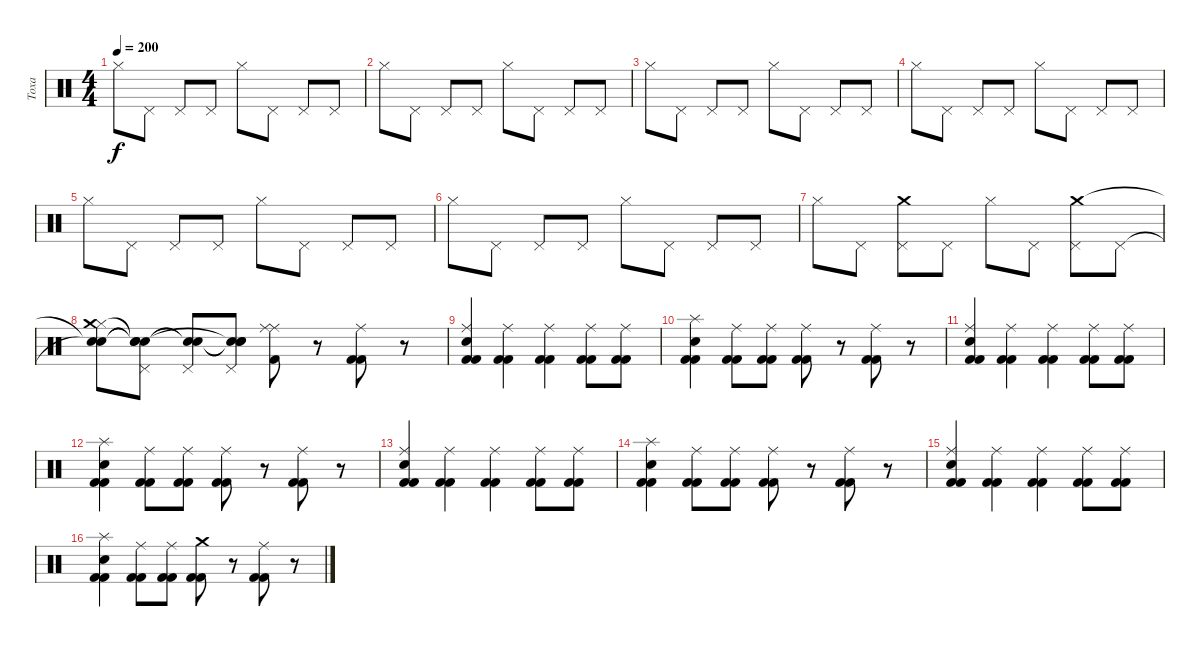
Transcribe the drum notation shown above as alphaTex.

\track ("Toxa" "Toxa") {instrument percussion}
\staff {score}
\articulation defaults
\ts (4 4)
\tempo 200
\clef neutral
\ks c "Hi-Hat (closed)".8{dy f} "Pedal Hi-Hat (hit)".8 "Pedal Hi-Hat (hit)".8 "Pedal Hi-Hat (hit)".8 "Hi-Hat (closed)".8 "Pedal Hi-Hat (hit)".8 "Pedal Hi-Hat (hit)".8 "Pedal Hi-Hat (hit)".8
|
"Hi-Hat (closed)".8 "Pedal Hi-Hat (hit)".8 "Pedal Hi-Hat (hit)".8 "Pedal Hi-Hat (hit)".8 "Hi-Hat (closed)".8 "Pedal Hi-Hat (hit)".8 "Pedal Hi-Hat (hit)".8 "Pedal Hi-Hat (hit)".8 |
"Hi-Hat (closed)".8 "Pedal Hi-Hat (hit)".8 "Pedal Hi-Hat (hit)".8 "Pedal Hi-Hat (hit)".8 "Hi-Hat (closed)".8 "Pedal Hi-Hat (hit)".8 "Pedal Hi-Hat (hit)".8 "Pedal Hi-Hat (hit)".8 |
"Hi-Hat (closed)".8 "Pedal Hi-Hat (hit)".8 "Pedal Hi-Hat (hit)".8 "Pedal Hi-Hat (hit)".8 "Hi-Hat (closed)".8 "Pedal Hi-Hat (hit)".8 "Pedal Hi-Hat (hit)".8 "Pedal Hi-Hat (hit)".8 |
"Hi-Hat (closed)".8 "Pedal Hi-Hat (hit)".8 "Pedal Hi-Hat (hit)".8 "Pedal Hi-Hat (hit)".8 "Hi-Hat (closed)".8 "Pedal Hi-Hat (hit)".8 "Pedal Hi-Hat (hit)".8 "Pedal Hi-Hat (hit)".8 |
"Hi-Hat (closed)".8 "Pedal Hi-Hat (hit)".8 "Pedal Hi-Hat (hit)".8 "Pedal Hi-Hat (hit)".8 "Hi-Hat (closed)".8 "Pedal Hi-Hat (hit)".8 "Pedal Hi-Hat (hit)".8 "Pedal Hi-Hat (hit)".8 |
"Hi-Hat (closed)".8 "Pedal Hi-Hat (hit)".8 ("Pedal Hi-Hat (hit)" "Crash medium (hit)").8 "Pedal Hi-Hat (hit)".8 "Hi-Hat (closed)".8 "Pedal Hi-Hat (hit)".8 ("Pedal Hi-Hat (hit)" "Crash medium (hit)").8 "Pedal Hi-Hat (hit)".8 |
("Snare (hit)"{t} "Snare (hit)"{t} "Hi-Hat (closed)" "Crash medium (hit)").8 ("Snare (hit)"{t} "Snare (hit)"{t} "Pedal Hi-Hat (hit)" "Snare (hit)"{t}).8 ("Snare (hit)"{t} "Snare (hit)"{t} "Pedal Hi-Hat (hit)").8 ("Snare (hit)"{t} "Snare (hit)"{t} "Pedal Hi-Hat (hit)" "Snare (hit)"{t}).8 ("Kick (hit) 2" "Ride (middle)" "Ride (middle)").8 r.8 ("Kick (hit) 2" "Kick (hit) 2" "Ride (middle)").8 r.8 |
("Electric Snare (hit)" "Kick (hit) 2" "Kick (hit) 2" "Ride (middle)").4 ("Kick (hit) 2" "Kick (hit) 2" "Ride (middle)").4 ("Kick (hit) 2" "Kick (hit) 2" "Ride (middle)").4 ("Kick (hit) 2" "Kick (hit) 2" "Ride (middle)").8 ("Kick (hit) 2" "Kick (hit) 2" "Ride (middle)").8 |
("Electric Snare (hit)" "Kick (hit) 2" "Kick (hit) 2" "Splash (hit)").4 ("Ride (middle)" "Kick (hit) 2" "Kick (hit) 2").8 ("Ride (middle)" "Kick (hit) 2" "Kick (hit) 2").8 ("Kick (hit) 2" "Kick (hit) 2" "Ride (middle)").8 r.8 ("Kick (hit) 2" "Kick (hit) 2" "Ride (middle)").8 r.8 |
("Electric Snare (hit)" "Kick (hit) 2" "Kick (hit) 2" "Ride (middle)").4 ("Kick (hit) 2" "Kick (hit) 2" "Ride (middle)").4 ("Kick (hit) 2" "Kick (hit) 2" "Ride (middle)").4 ("Kick (hit) 2" "Kick (hit) 2" "Ride (middle)").8 ("Kick (hit) 2" "Kick (hit) 2" "Ride (middle)").8 |
("Electric Snare (hit)" "Kick (hit) 2" "Kick (hit) 2" "Splash (hit)").4 ("Ride (middle)" "Kick (hit) 2" "Kick (hit) 2").8 ("Ride (middle)" "Kick (hit) 2" "Kick (hit) 2").8 ("Kick (hit) 2" "Kick (hit) 2" "Ride (middle)").8 r.8 ("Kick (hit) 2" "Kick (hit) 2" "Ride (middle)").8 r.8 |
("Electric Snare (hit)" "Kick (hit) 2" "Kick (hit) 2" "Ride (middle)").4 ("Kick (hit) 2" "Kick (hit) 2" "Ride (middle)").4 ("Kick (hit) 2" "Kick (hit) 2" "Ride (middle)").4 ("Kick (hit) 2" "Kick (hit) 2" "Ride (middle)").8 ("Kick (hit) 2" "Kick (hit) 2" "Ride (middle)").8 |
("Electric Snare (hit)" "Kick (hit) 2" "Kick (hit) 2" "Splash (hit)").4 ("Ride (middle)" "Kick (hit) 2" "Kick (hit) 2").8 ("Ride (middle)" "Kick (hit) 2" "Kick (hit) 2").8 ("Kick (hit) 2" "Kick (hit) 2" "Ride (middle)").8 r.8 ("Kick (hit) 2" "Kick (hit) 2" "Ride (middle)").8 r.8 |
("Electric Snare (hit)" "Kick (hit) 2" "Kick (hit) 2" "Ride (middle)").4 ("Kick (hit) 2" "Kick (hit) 2" "Ride (middle)").4 ("Kick (hit) 2" "Kick (hit) 2" "Ride (middle)").4 ("Kick (hit) 2" "Kick (hit) 2" "Ride (middle)").8 ("Kick (hit) 2" "Kick (hit) 2" "Ride (middle)").8 |
("Electric Snare (hit)" "Kick (hit) 2" "Kick (hit) 2" "Splash (hit)").4 ("Ride (middle)" "Kick (hit) 2" "Kick (hit) 2").8 ("Ride (middle)" "Kick (hit) 2" "Kick (hit) 2").8 ("Kick (hit) 2" "Kick (hit) 2" "Crash medium (hit)").8 r.8 ("Kick (hit) 2" "Kick (hit) 2" "Ride (middle)").8 r.8
